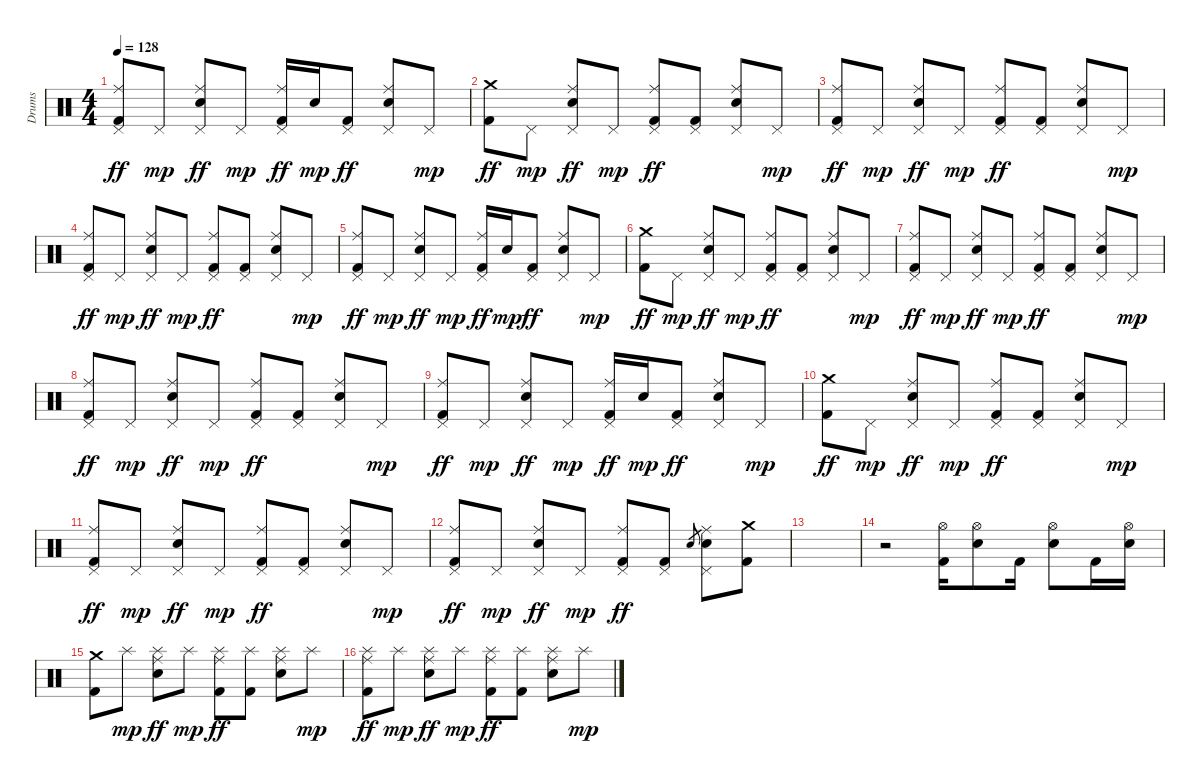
\track ("Drums" "Drums") {instrument percussion}
\staff {score}
\articulation defaults
\ts (4 4)
\tempo 128
\clef neutral
\ks c
("Ride (middle)" "Pedal Hi-Hat (hit)" "Kick (hit) 2").8{dy ff} "Pedal Hi-Hat (hit)".8{dy mp} ("Ride (middle)" "Pedal Hi-Hat (hit)" "Electric Snare (hit)").8{dy ff} "Pedal Hi-Hat (hit)".8{dy mp} ("Ride (middle)" "Pedal Hi-Hat (hit)" "Kick (hit) 2").16{dy ff} "Electric Snare (hit)".16{dy mp} ("Pedal Hi-Hat (hit)" "Kick (hit) 2").8{dy ff} ("Ride (middle)" "Pedal Hi-Hat (hit)" "Electric Snare (hit)").8 "Pedal Hi-Hat (hit)".8{dy mp} |
("Crash medium (hit)" "Kick (hit) 2").8{dy ff} "Pedal Hi-Hat (hit)".8{dy mp} ("Ride (middle)" "Pedal Hi-Hat (hit)" "Electric Snare (hit)").8{dy ff} "Pedal Hi-Hat (hit)".8{dy mp} ("Ride (middle)" "Pedal Hi-Hat (hit)" "Kick (hit) 2").8{dy ff} ("Pedal Hi-Hat (hit)" "Kick (hit) 2").8 ("Ride (middle)" "Pedal Hi-Hat (hit)" "Electric Snare (hit)").8 "Pedal Hi-Hat (hit)".8{dy mp} |
("Ride (middle)" "Pedal Hi-Hat (hit)" "Kick (hit) 2").8{dy ff} "Pedal Hi-Hat (hit)".8{dy mp} ("Ride (middle)" "Pedal Hi-Hat (hit)" "Electric Snare (hit)").8{dy ff} "Pedal Hi-Hat (hit)".8{dy mp} ("Ride (middle)" "Pedal Hi-Hat (hit)" "Kick (hit) 2").8{dy ff} ("Pedal Hi-Hat (hit)" "Kick (hit) 2").8 ("Ride (middle)" "Pedal Hi-Hat (hit)" "Electric Snare (hit)").8 "Pedal Hi-Hat (hit)".8{dy mp} |
("Ride (middle)" "Pedal Hi-Hat (hit)" "Kick (hit) 2").8{dy ff} "Pedal Hi-Hat (hit)".8{dy mp} ("Ride (middle)" "Pedal Hi-Hat (hit)" "Electric Snare (hit)").8{dy ff} "Pedal Hi-Hat (hit)".8{dy mp} ("Ride (middle)" "Pedal Hi-Hat (hit)" "Kick (hit) 2").8{dy ff} ("Pedal Hi-Hat (hit)" "Kick (hit) 2").8 ("Ride (middle)" "Pedal Hi-Hat (hit)" "Electric Snare (hit)").8 "Pedal Hi-Hat (hit)".8{dy mp} |
("Ride (middle)" "Pedal Hi-Hat (hit)" "Kick (hit) 2").8{dy ff} "Pedal Hi-Hat (hit)".8{dy mp} ("Ride (middle)" "Pedal Hi-Hat (hit)" "Electric Snare (hit)").8{dy ff} "Pedal Hi-Hat (hit)".8{dy mp} ("Ride (middle)" "Pedal Hi-Hat (hit)" "Kick (hit) 2").16{dy ff} "Electric Snare (hit)".16{dy mp} ("Pedal Hi-Hat (hit)" "Kick (hit) 2").8{dy ff} ("Ride (middle)" "Pedal Hi-Hat (hit)" "Electric Snare (hit)").8 "Pedal Hi-Hat (hit)".8{dy mp} |
("Crash medium (hit)" "Kick (hit) 2").8{dy ff} "Pedal Hi-Hat (hit)".8{dy mp} ("Ride (middle)" "Pedal Hi-Hat (hit)" "Electric Snare (hit)").8{dy ff} "Pedal Hi-Hat (hit)".8{dy mp} ("Ride (middle)" "Pedal Hi-Hat (hit)" "Kick (hit) 2").8{dy ff} ("Pedal Hi-Hat (hit)" "Kick (hit) 2").8 ("Ride (middle)" "Pedal Hi-Hat (hit)" "Electric Snare (hit)").8 "Pedal Hi-Hat (hit)".8{dy mp} |
("Ride (middle)" "Pedal Hi-Hat (hit)" "Kick (hit) 2").8{dy ff} "Pedal Hi-Hat (hit)".8{dy mp} ("Ride (middle)" "Pedal Hi-Hat (hit)" "Electric Snare (hit)").8{dy ff} "Pedal Hi-Hat (hit)".8{dy mp} ("Ride (middle)" "Pedal Hi-Hat (hit)" "Kick (hit) 2").8{dy ff} ("Pedal Hi-Hat (hit)" "Kick (hit) 2").8 ("Ride (middle)" "Pedal Hi-Hat (hit)" "Electric Snare (hit)").8 "Pedal Hi-Hat (hit)".8{dy mp} |
("Ride (middle)" "Pedal Hi-Hat (hit)" "Kick (hit) 2").8{dy ff} "Pedal Hi-Hat (hit)".8{dy mp} ("Ride (middle)" "Pedal Hi-Hat (hit)" "Electric Snare (hit)").8{dy ff} "Pedal Hi-Hat (hit)".8{dy mp} ("Ride (middle)" "Pedal Hi-Hat (hit)" "Kick (hit) 2").8{dy ff} ("Pedal Hi-Hat (hit)" "Kick (hit) 2").8 ("Ride (middle)" "Pedal Hi-Hat (hit)" "Electric Snare (hit)").8 "Pedal Hi-Hat (hit)".8{dy mp} |
("Ride (middle)" "Pedal Hi-Hat (hit)" "Kick (hit) 2").8{dy ff} "Pedal Hi-Hat (hit)".8{dy mp} ("Ride (middle)" "Pedal Hi-Hat (hit)" "Electric Snare (hit)").8{dy ff} "Pedal Hi-Hat (hit)".8{dy mp} ("Ride (middle)" "Pedal Hi-Hat (hit)" "Kick (hit) 2").16{dy ff} "Electric Snare (hit)".16{dy mp} ("Pedal Hi-Hat (hit)" "Kick (hit) 2").8{dy ff} ("Ride (middle)" "Pedal Hi-Hat (hit)" "Electric Snare (hit)").8 "Pedal Hi-Hat (hit)".8{dy mp} |
("Crash medium (hit)" "Kick (hit) 2").8{dy ff} "Pedal Hi-Hat (hit)".8{dy mp} ("Ride (middle)" "Pedal Hi-Hat (hit)" "Electric Snare (hit)").8{dy ff} "Pedal Hi-Hat (hit)".8{dy mp} ("Ride (middle)" "Pedal Hi-Hat (hit)" "Kick (hit) 2").8{dy ff} ("Pedal Hi-Hat (hit)" "Kick (hit) 2").8 ("Ride (middle)" "Pedal Hi-Hat (hit)" "Electric Snare (hit)").8 "Pedal Hi-Hat (hit)".8{dy mp} |
("Ride (middle)" "Pedal Hi-Hat (hit)" "Kick (hit) 2").8{dy ff} "Pedal Hi-Hat (hit)".8{dy mp} ("Ride (middle)" "Pedal Hi-Hat (hit)" "Electric Snare (hit)").8{dy ff} "Pedal Hi-Hat (hit)".8{dy mp} ("Ride (middle)" "Pedal Hi-Hat (hit)" "Kick (hit) 2").8{dy ff} ("Pedal Hi-Hat (hit)" "Kick (hit) 2").8 ("Ride (middle)" "Pedal Hi-Hat (hit)" "Electric Snare (hit)").8 "Pedal Hi-Hat (hit)".8{dy mp} |
("Ride (middle)" "Pedal Hi-Hat (hit)" "Kick (hit) 2").8{dy ff} "Pedal Hi-Hat (hit)".8{dy mp} ("Ride (middle)" "Pedal Hi-Hat (hit)" "Electric Snare (hit)").8{dy ff} "Pedal Hi-Hat (hit)".8{dy mp} ("Ride (middle)" "Pedal Hi-Hat (hit)" "Kick (hit) 2").8{dy ff} ("Pedal Hi-Hat (hit)" "Kick (hit) 2").8 "Electric Snare (hit)".8{gr} ("Ride (middle)" "Pedal Hi-Hat (hit)" "Electric Snare (hit)").8 ("Crash medium (hit)" "Kick (hit) 2").8 |
|
r.2 ("Hi-Hat (open)" "Kick (hit) 2").16 ("Hi-Hat (open)" "Electric Snare (hit)").8 "Kick (hit) 2".16 ("Hi-Hat (open)" "Electric Snare (hit)").8 "Kick (hit) 2".16 ("Hi-Hat (open)" "Electric Snare (hit)").16 |
("Crash medium (hit)" "Kick (hit) 2").8 "Splash (hit)".8{dy mp} ("Ride (middle)" "Splash (hit)" "Electric Snare (hit)").8{dy ff} "Splash (hit)".8{dy mp} ("Ride (middle)" "Splash (hit)" "Kick (hit) 2").8{dy ff} ("Splash (hit)" "Kick (hit) 2").8 ("Ride (middle)" "Splash (hit)" "Electric Snare (hit)").8 "Splash (hit)".8{dy mp} |
("Ride (middle)" "Splash (hit)" "Kick (hit) 2").8{dy ff} "Splash (hit)".8{dy mp} ("Ride (middle)" "Splash (hit)" "Electric Snare (hit)").8{dy ff} "Splash (hit)".8{dy mp} ("Ride (middle)" "Splash (hit)" "Kick (hit) 2").8{dy ff} ("Splash (hit)" "Kick (hit) 2").8 ("Ride (middle)" "Splash (hit)" "Electric Snare (hit)").8 "Splash (hit)".8{dy mp}
